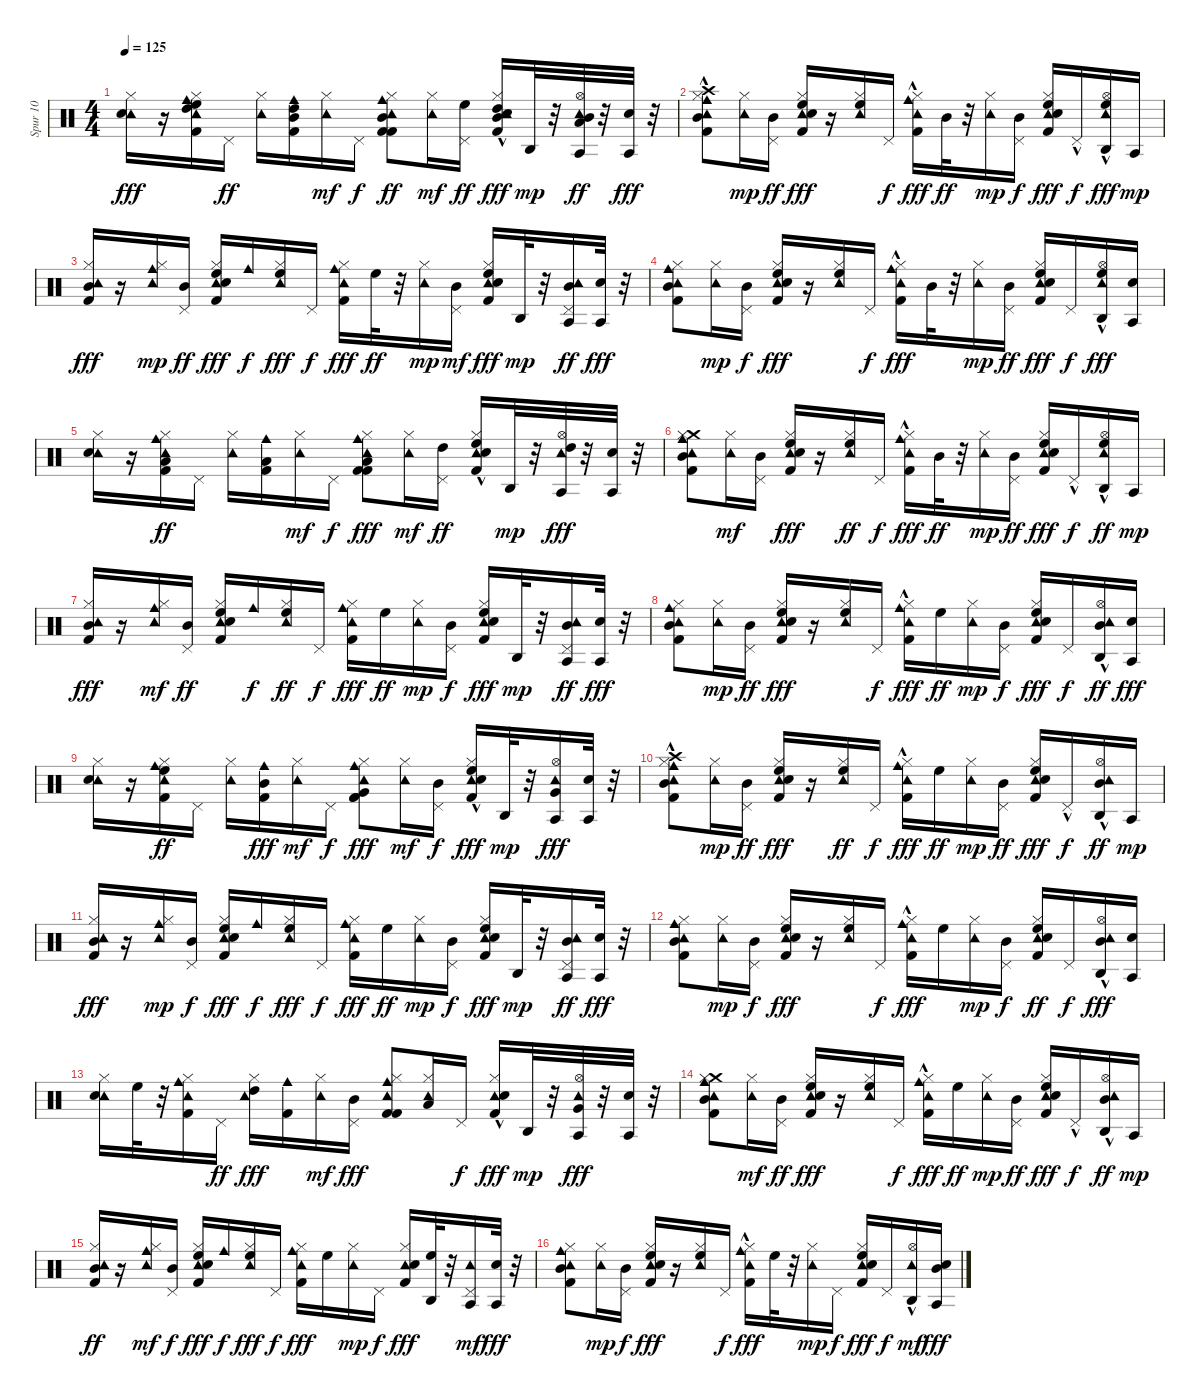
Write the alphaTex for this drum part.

\track ("Spur 10" "Spur 10") {instrument percussion}
\staff {score}
\articulation defaults
\ts (4 4)
\tempo 125
\clef neutral
\ks c
("Tambourine (hit)" "Electric Snare (hit)" "Hi-Hat (closed)").16{dy fff} r.16 ("Tambourine (hit)" "Cowbell medium (hit)" "Hi-Hat (closed)" "Kick (hit) 2" "High Floor Tom (hit)" "High Tom (hit)").16 "Pedal Hi-Hat (hit)".16{dy ff} ("Tambourine (hit)" "Hi-Hat (closed)").16 ("Cowbell medium (hit)" "Kick (hit) 2" "High Tom (hit)" "Mid Tom (hit)").16 ("Tambourine (hit)" "Hi-Hat (closed)").16{dy mf} "Pedal Hi-Hat (hit)".16{dy f} ("Tambourine (hit)" "Cowbell medium (hit)" "Kick (hit) 2" "Hi-Hat (closed)" "Kick (hit) 2" "Mid Tom (hit)").8{dy ff} ("Tambourine (hit)" "Hi-Hat (closed)").16{dy mf} ("Pedal Hi-Hat (hit)" "High Floor Tom (hit)").16{dy ff} ("Tambourine (hit)" "High Tom (hit)" "Hi-Hat (closed)" "Kick (hit) 2"{hac} "Electric Snare (hit)" "Mid Tom (hit)").16{dy fff} "Agogo high (hit)".32{dy mp} r.32 ("Agogo tow (hit)" "Tambourine (hit)" "Hi-Hat (open)" "Mid Tom (hit)" "Low Tom (hit)").32{dy ff} r.32 ("Agogo tow (hit)" "Electric Snare (hit)").32{dy fff} r.32 |
("Tambourine (hit)" "Cowbell medium (hit)" "Mid Tom (hit)" "Crash high (hit)"{hac} "Hi-Hat (closed)" "Kick (hit) 2").8 ("Tambourine (hit)" "Hi-Hat (closed)").16{dy mp} ("Pedal Hi-Hat (hit)" "Mid Tom (hit)").16{dy ff} ("Tambourine (hit)" "High Floor Tom (hit)" "Electric Snare (hit)" "Kick (hit) 2" "Hi-Hat (closed)").16{dy fff} r.16 ("Tambourine (hit)" "High Floor Tom (hit)" "Hi-Hat (closed)").16 "Pedal Hi-Hat (hit)".16{dy f} ("Tambourine (hit)" "Cowbell medium (hit)"{hac} "Kick (hit) 2" "Hi-Hat (closed)").16{dy fff} "Mid Tom (hit)".32{dy ff} r.32 ("Tambourine (hit)" "Hi-Hat (closed)").16{dy mp} ("Pedal Hi-Hat (hit)" "Mid Tom (hit)").16{dy f} ("Tambourine (hit)" "High Floor Tom (hit)" "Kick (hit) 2" "Electric Snare (hit)" "Hi-Hat (closed)").16{dy fff} "Pedal Hi-Hat (hit)"{hac}.16{dy f} ("Agogo high (hit)" "Tambourine (hit)" "High Floor Tom (hit)" "Hi-Hat (open)"{hac}).16{dy fff} "Agogo tow (hit)".16{dy mp} |
("Tambourine (hit)" "Mid Tom (hit)" "Kick (hit) 2" "Hi-Hat (closed)").16{dy fff} r.16 ("Cowbell medium (hit)" "Tambourine (hit)" "Hi-Hat (closed)").16{dy mp} ("Pedal Hi-Hat (hit)" "Mid Tom (hit)").16{dy ff} ("Tambourine (hit)" "Hi-Hat (closed)" "Kick (hit) 2" "Electric Snare (hit)" "High Floor Tom (hit)").16{dy fff} "Cowbell medium (hit)".16{dy f} ("Tambourine (hit)" "Hi-Hat (closed)" "High Floor Tom (hit)").16{dy fff} "Pedal Hi-Hat (hit)".16{dy f} ("Cowbell medium (hit)" "Tambourine (hit)" "Kick (hit) 2" "Hi-Hat (closed)").16{dy fff} "High Floor Tom (hit)".32{dy ff} r.32 ("Tambourine (hit)" "Hi-Hat (closed)").16{dy mp} ("Pedal Hi-Hat (hit)" "Mid Tom (hit)").16{dy mf} ("Tambourine (hit)" "Electric Snare (hit)" "Kick (hit) 2" "Hi-Hat (closed)" "High Floor Tom (hit)").16{dy fff} "Agogo high (hit)".32{dy mp} r.32 ("Agogo tow (hit)" "Tambourine (hit)" "Pedal Hi-Hat (hit)" "Mid Tom (hit)").16{dy ff} ("Agogo tow (hit)" "Electric Snare (hit)").32{dy fff} r.32 |
("Cowbell medium (hit)" "Tambourine (hit)" "Kick (hit) 2" "Hi-Hat (closed)" "Mid Tom (hit)").8 ("Tambourine (hit)" "Hi-Hat (closed)").16{dy mp} ("Mid Tom (hit)" "Pedal Hi-Hat (hit)").16{dy f} ("Tambourine (hit)" "High Floor Tom (hit)" "Electric Snare (hit)" "Kick (hit) 2" "Hi-Hat (closed)").16{dy fff} r.16 ("Tambourine (hit)" "Hi-Hat (closed)" "High Floor Tom (hit)").16 "Pedal Hi-Hat (hit)".16{dy f} ("Cowbell medium (hit)"{hac} "Tambourine (hit)" "Hi-Hat (closed)" "Kick (hit) 2").16{dy fff} "Mid Tom (hit)".32 r.32 ("Tambourine (hit)" "Hi-Hat (closed)").16{dy mp} ("Pedal Hi-Hat (hit)" "Mid Tom (hit)").16{dy ff} ("Tambourine (hit)" "Kick (hit) 2" "Electric Snare (hit)" "Hi-Hat (closed)" "High Floor Tom (hit)").16{dy fff} "Pedal Hi-Hat (hit)".16{dy f} ("Agogo high (hit)" "Tambourine (hit)" "Hi-Hat (open)"{hac} "High Floor Tom (hit)").16{dy fff} ("Agogo tow (hit)" "Electric Snare (hit)").16 |
("Tambourine (hit)" "Electric Snare (hit)" "Hi-Hat (closed)").16 r.16 ("Tambourine (hit)" "Cowbell medium (hit)" "Hi-Hat (closed)" "Kick (hit) 2" "Low Tom (hit)").16{dy ff} "Pedal Hi-Hat (hit)".16 ("Tambourine (hit)" "Hi-Hat (closed)").16 ("Cowbell medium (hit)" "Kick (hit) 2" "Low Tom (hit)").16 ("Tambourine (hit)" "Hi-Hat (closed)").16{dy mf} "Pedal Hi-Hat (hit)".16{dy f} ("Tambourine (hit)" "Cowbell medium (hit)" "Kick (hit) 2" "Hi-Hat (closed)" "Kick (hit) 2" "Low Tom (hit)").8{dy fff} ("Tambourine (hit)" "Hi-Hat (closed)").16{dy mf} ("Pedal Hi-Hat (hit)" "High Tom (hit)").16{dy ff} ("Tambourine (hit)" "Hi-Hat (closed)" "Kick (hit) 2"{hac} "Electric Snare (hit)" "High Floor Tom (hit)").16 "Agogo high (hit)".32{dy mp} r.32 ("Agogo tow (hit)" "Tambourine (hit)" "Hi-Hat (open)" "High Tom (hit)").32{dy fff} r.32 ("Agogo tow (hit)" "Electric Snare (hit)").32 r.32 |
("Tambourine (hit)" "Cowbell medium (hit)" "Mid Tom (hit)" "Crash medium (hit)" "Hi-Hat (closed)" "Kick (hit) 2").8 ("Tambourine (hit)" "Hi-Hat (closed)").16{dy mf} ("Mid Tom (hit)" "Pedal Hi-Hat (hit)").16 ("Tambourine (hit)" "High Floor Tom (hit)" "Electric Snare (hit)" "Kick (hit) 2" "Hi-Hat (closed)").16{dy fff} r.16 ("Tambourine (hit)" "High Floor Tom (hit)" "Hi-Hat (closed)").16{dy ff} "Pedal Hi-Hat (hit)".16{dy f} ("Tambourine (hit)" "Cowbell medium (hit)"{hac} "Kick (hit) 2" "Hi-Hat (closed)").16{dy fff} "Mid Tom (hit)".32{dy ff} r.32 ("Tambourine (hit)" "Hi-Hat (closed)").16{dy mp} ("Mid Tom (hit)" "Pedal Hi-Hat (hit)").16{dy ff} ("Tambourine (hit)" "High Floor Tom (hit)" "Kick (hit) 2" "Electric Snare (hit)" "Hi-Hat (closed)").16{dy fff} "Pedal Hi-Hat (hit)"{hac}.16{dy f} ("Agogo high (hit)" "Tambourine (hit)" "Hi-Hat (open)"{hac} "High Floor Tom (hit)").16{dy ff} "Agogo tow (hit)".16{dy mp} |
("Tambourine (hit)" "Mid Tom (hit)" "Kick (hit) 2" "Hi-Hat (closed)").16{dy fff} r.16 ("Cowbell medium (hit)" "Tambourine (hit)" "Hi-Hat (closed)").16{dy mf} ("Pedal Hi-Hat (hit)" "Mid Tom (hit)").16{dy ff} ("Tambourine (hit)" "Hi-Hat (closed)" "Kick (hit) 2" "Electric Snare (hit)" "High Floor Tom (hit)").16 "Cowbell medium (hit)".16{dy f} ("Tambourine (hit)" "Hi-Hat (closed)" "High Floor Tom (hit)").16{dy ff} "Pedal Hi-Hat (hit)".16{dy f} ("Cowbell medium (hit)" "Tambourine (hit)" "Kick (hit) 2" "Hi-Hat (closed)").16{dy fff} "High Floor Tom (hit)".16{dy ff} ("Tambourine (hit)" "Hi-Hat (closed)").16{dy mp} ("Pedal Hi-Hat (hit)" "Mid Tom (hit)").16{dy f} ("Tambourine (hit)" "High Floor Tom (hit)" "Electric Snare (hit)" "Kick (hit) 2" "Hi-Hat (closed)").16{dy fff} "Agogo high (hit)".32{dy mp} r.32 ("Agogo tow (hit)" "Tambourine (hit)" "Mid Tom (hit)" "Pedal Hi-Hat (hit)").16{dy ff} ("Agogo tow (hit)" "Electric Snare (hit)").32{dy fff} r.32 |
("Tambourine (hit)" "Cowbell medium (hit)" "Mid Tom (hit)" "Kick (hit) 2" "Hi-Hat (closed)").8 ("Tambourine (hit)" "Hi-Hat (closed)").16{dy mp} ("Mid Tom (hit)" "Pedal Hi-Hat (hit)").16{dy ff} ("Tambourine (hit)" "High Floor Tom (hit)" "Electric Snare (hit)" "Kick (hit) 2" "Hi-Hat (closed)").16{dy fff} r.16 ("Tambourine (hit)" "High Floor Tom (hit)" "Hi-Hat (closed)").16 "Pedal Hi-Hat (hit)".16{dy f} ("Tambourine (hit)" "Cowbell medium (hit)"{hac} "Hi-Hat (closed)" "Kick (hit) 2").16{dy fff} "High Floor Tom (hit)".16{dy ff} ("Tambourine (hit)" "Hi-Hat (closed)").16{dy mp} ("Pedal Hi-Hat (hit)" "Mid Tom (hit)").16{dy f} ("Tambourine (hit)" "Kick (hit) 2" "Electric Snare (hit)" "Hi-Hat (closed)" "High Floor Tom (hit)").16{dy fff} "Pedal Hi-Hat (hit)".16{dy f} ("Agogo high (hit)" "Tambourine (hit)" "Hi-Hat (open)"{hac} "Mid Tom (hit)").16{dy ff} ("Agogo tow (hit)" "Electric Snare (hit)").16{dy fff} |
("Tambourine (hit)" "Electric Snare (hit)" "Hi-Hat (closed)").16 r.16 ("Tambourine (hit)" "Cowbell medium (hit)" "Hi-Hat (closed)" "Kick (hit) 2" "High Floor Tom (hit)").16{dy ff} "Pedal Hi-Hat (hit)".16 ("Tambourine (hit)" "Hi-Hat (closed)").16 ("Cowbell medium (hit)" "Kick (hit) 2" "Mid Tom (hit)").16{dy fff} ("Tambourine (hit)" "Hi-Hat (closed)").16{dy mf} "Pedal Hi-Hat (hit)".16{dy f} ("Tambourine (hit)" "Cowbell medium (hit)" "Kick (hit) 2" "Hi-Hat (closed)" "Kick (hit) 2" "Very Low Tom (hit)").8{dy fff} ("Tambourine (hit)" "Hi-Hat (closed)").16{dy mf} ("Mid Tom (hit)" "Pedal Hi-Hat (hit)").16{dy f} ("Tambourine (hit)" "High Floor Tom (hit)" "Hi-Hat (closed)" "Kick (hit) 2"{hac} "Electric Snare (hit)").16{dy fff} "Agogo high (hit)".32{dy mp} r.32 ("Agogo tow (hit)" "Tambourine (hit)" "Very Low Tom (hit)" "Hi-Hat (open)").16{dy fff} ("Agogo tow (hit)" "Electric Snare (hit)").32 r.32 |
("Tambourine (hit)" "Cowbell medium (hit)" "Mid Tom (hit)" "Crash high (hit)"{hac} "Hi-Hat (closed)" "Kick (hit) 2").8 ("Tambourine (hit)" "Hi-Hat (closed)").16{dy mp} ("Pedal Hi-Hat (hit)" "Mid Tom (hit)").16{dy ff} ("Tambourine (hit)" "High Floor Tom (hit)" "Electric Snare (hit)" "Kick (hit) 2" "Hi-Hat (closed)").16{dy fff} r.16 ("Tambourine (hit)" "High Floor Tom (hit)" "Hi-Hat (closed)").16{dy ff} "Pedal Hi-Hat (hit)".16{dy f} ("Tambourine (hit)" "Cowbell medium (hit)"{hac} "Kick (hit) 2" "Hi-Hat (closed)").16{dy fff} "High Floor Tom (hit)".16{dy ff} ("Tambourine (hit)" "Hi-Hat (closed)").16{dy mp} ("Pedal Hi-Hat (hit)" "Mid Tom (hit)").16{dy ff} ("Tambourine (hit)" "Kick (hit) 2" "Electric Snare (hit)" "Hi-Hat (closed)" "High Floor Tom (hit)").16{dy fff} "Pedal Hi-Hat (hit)"{hac}.16{dy f} ("Agogo high (hit)" "Tambourine (hit)" "Hi-Hat (open)"{hac} "Mid Tom (hit)").16{dy ff} "Agogo tow (hit)".16{dy mp} |
("Tambourine (hit)" "Mid Tom (hit)" "Kick (hit) 2" "Hi-Hat (closed)").16{dy fff} r.16 ("Cowbell medium (hit)" "Tambourine (hit)" "Hi-Hat (closed)").16{dy mp} ("Mid Tom (hit)" "Pedal Hi-Hat (hit)").16{dy f} ("Tambourine (hit)" "High Floor Tom (hit)" "Hi-Hat (closed)" "Kick (hit) 2" "Electric Snare (hit)").16{dy fff} "Cowbell medium (hit)".16{dy f} ("Tambourine (hit)" "Hi-Hat (closed)" "High Floor Tom (hit)").16{dy fff} "Pedal Hi-Hat (hit)".16{dy f} ("Cowbell medium (hit)" "Tambourine (hit)" "Kick (hit) 2" "Hi-Hat (closed)").16{dy fff} "High Floor Tom (hit)".16{dy ff} ("Tambourine (hit)" "Hi-Hat (closed)").16{dy mp} ("Pedal Hi-Hat (hit)" "Mid Tom (hit)").16{dy f} ("Tambourine (hit)" "Electric Snare (hit)" "Kick (hit) 2" "Hi-Hat (closed)" "High Floor Tom (hit)").16{dy fff} "Agogo high (hit)".32{dy mp} r.32 ("Agogo tow (hit)" "Tambourine (hit)" "Pedal Hi-Hat (hit)" "Mid Tom (hit)").16{dy ff} ("Agogo tow (hit)" "Electric Snare (hit)").32{dy fff} r.32 |
("Cowbell medium (hit)" "Tambourine (hit)" "Kick (hit) 2" "Hi-Hat (closed)" "Mid Tom (hit)").8 ("Tambourine (hit)" "Hi-Hat (closed)").16{dy mp} ("Mid Tom (hit)" "Pedal Hi-Hat (hit)").16{dy f} ("Tambourine (hit)" "High Floor Tom (hit)" "Electric Snare (hit)" "Kick (hit) 2" "Hi-Hat (closed)").16{dy fff} r.16 ("Tambourine (hit)" "Hi-Hat (closed)" "High Floor Tom (hit)").16 "Pedal Hi-Hat (hit)".16{dy f} ("Cowbell medium (hit)"{hac} "Tambourine (hit)" "Hi-Hat (closed)" "Kick (hit) 2").16{dy fff} "High Floor Tom (hit)".16 ("Tambourine (hit)" "Hi-Hat (closed)").16{dy mp} ("Pedal Hi-Hat (hit)" "Mid Tom (hit)").16{dy f} ("Tambourine (hit)" "Kick (hit) 2" "Electric Snare (hit)" "Hi-Hat (closed)" "High Floor Tom (hit)").16{dy ff} "Pedal Hi-Hat (hit)".16{dy f} ("Agogo high (hit)" "Tambourine (hit)" "Hi-Hat (open)"{hac} "Mid Tom (hit)"{hac}).16{dy fff} ("Agogo tow (hit)" "Electric Snare (hit)").16 |
("Tambourine (hit)" "Electric Snare (hit)" "Hi-Hat (closed)").16 "High Floor Tom (hit)".32 r.32 ("Tambourine (hit)" "Cowbell medium (hit)" "Hi-Hat (closed)" "Kick (hit) 2").16 "Pedal Hi-Hat (hit)".16{dy ff} ("Tambourine (hit)" "High Tom (hit)" "Hi-Hat (closed)").16{dy fff} ("Cowbell medium (hit)" "Kick (hit) 2").16 ("Tambourine (hit)" "Hi-Hat (closed)").16{dy mf} ("Mid Tom (hit)" "Pedal Hi-Hat (hit)").16{dy fff} ("Tambourine (hit)" "Cowbell medium (hit)" "Kick (hit) 2" "Hi-Hat (closed)" "Kick (hit) 2").8 ("Tambourine (hit)" "Hi-Hat (closed)" "Low Tom (hit)").16 "Pedal Hi-Hat (hit)".16{dy f} ("Tambourine (hit)" "Hi-Hat (closed)" "Kick (hit) 2"{hac} "Electric Snare (hit)").16{dy fff} "Agogo high (hit)".32{dy mp} r.32 ("Agogo tow (hit)" "Tambourine (hit)" "Very Low Tom (hit)" "Hi-Hat (open)").32{dy fff} r.32 ("Agogo tow (hit)" "Electric Snare (hit)").32 r.32 |
("Tambourine (hit)" "Cowbell medium (hit)" "Mid Tom (hit)" "Crash medium (hit)" "Hi-Hat (closed)" "Kick (hit) 2").8 ("Tambourine (hit)" "Hi-Hat (closed)").16{dy mf} ("Pedal Hi-Hat (hit)" "Mid Tom (hit)").16{dy ff} ("Tambourine (hit)" "High Floor Tom (hit)" "Electric Snare (hit)" "Kick (hit) 2" "Hi-Hat (closed)").16{dy fff} r.16 ("Tambourine (hit)" "High Floor Tom (hit)" "Hi-Hat (closed)").16 "Pedal Hi-Hat (hit)".16{dy f} ("Tambourine (hit)" "Cowbell medium (hit)"{hac} "Kick (hit) 2" "Hi-Hat (closed)").16{dy fff} "High Floor Tom (hit)".16{dy ff} ("Tambourine (hit)" "Hi-Hat (closed)").16{dy mp} ("Pedal Hi-Hat (hit)" "Mid Tom (hit)").16{dy ff} ("Tambourine (hit)" "Kick (hit) 2" "Electric Snare (hit)" "Hi-Hat (closed)" "High Floor Tom (hit)").16{dy fff} "Pedal Hi-Hat (hit)"{hac}.16{dy f} ("Agogo high (hit)" "Tambourine (hit)" "Hi-Hat (open)"{hac} "Mid Tom (hit)").16{dy ff} "Agogo tow (hit)".16{dy mp} |
("Tambourine (hit)" "Kick (hit) 2" "Hi-Hat (closed)" "Mid Tom (hit)").16{dy ff} r.16 ("Cowbell medium (hit)" "Tambourine (hit)" "Hi-Hat (closed)").16{dy mf} ("Pedal Hi-Hat (hit)" "Mid Tom (hit)").16{dy f} ("Tambourine (hit)" "Hi-Hat (closed)" "Kick (hit) 2" "Electric Snare (hit)" "High Floor Tom (hit)").16{dy fff} "Cowbell medium (hit)".16{dy f} ("Tambourine (hit)" "Hi-Hat (closed)" "High Floor Tom (hit)").16{dy fff} "Pedal Hi-Hat (hit)".16{dy f} ("Cowbell medium (hit)" "Tambourine (hit)" "Kick (hit) 2" "Hi-Hat (closed)").16{dy fff} "High Floor Tom (hit)".16 ("Tambourine (hit)" "Hi-Hat (closed)").16{dy mp} "Pedal Hi-Hat (hit)".16{dy f} ("Tambourine (hit)" "Electric Snare (hit)" "Kick (hit) 2" "Hi-Hat (closed)").16{dy fff} ("Agogo high (hit)" "High Floor Tom (hit)").32 r.32 ("Agogo tow (hit)" "Tambourine (hit)" "Pedal Hi-Hat (hit)").16{dy mf} ("Agogo tow (hit)" "Electric Snare (hit)").32{dy fff} r.32 |
("Tambourine (hit)" "Cowbell medium (hit)" "Kick (hit) 2" "Hi-Hat (closed)" "Mid Tom (hit)").8 ("Tambourine (hit)" "Hi-Hat (closed)").16{dy mp} ("Mid Tom (hit)" "Pedal Hi-Hat (hit)").16{dy f} ("Tambourine (hit)" "High Floor Tom (hit)" "Electric Snare (hit)" "Kick (hit) 2" "Hi-Hat (closed)").16{dy fff} r.16 ("Tambourine (hit)" "High Floor Tom (hit)" "Hi-Hat (closed)").16 "Pedal Hi-Hat (hit)".16{dy f} ("Tambourine (hit)" "Cowbell medium (hit)"{hac} "Hi-Hat (closed)" "Kick (hit) 2").16{dy fff} "High Floor Tom (hit)".32 r.32 ("Tambourine (hit)" "Hi-Hat (closed)").16{dy mp} "Pedal Hi-Hat (hit)".16{dy f} ("Tambourine (hit)" "High Floor Tom (hit)" "Kick (hit) 2" "Electric Snare (hit)" "Hi-Hat (closed)").16{dy fff} "Pedal Hi-Hat (hit)".16{dy f} ("Agogo high (hit)" "Tambourine (hit)" "Hi-Hat (open)"{hac}).16{dy mf} ("Agogo tow (hit)" "Electric Snare (hit)" "Mid Tom (hit)").16{dy fff}
